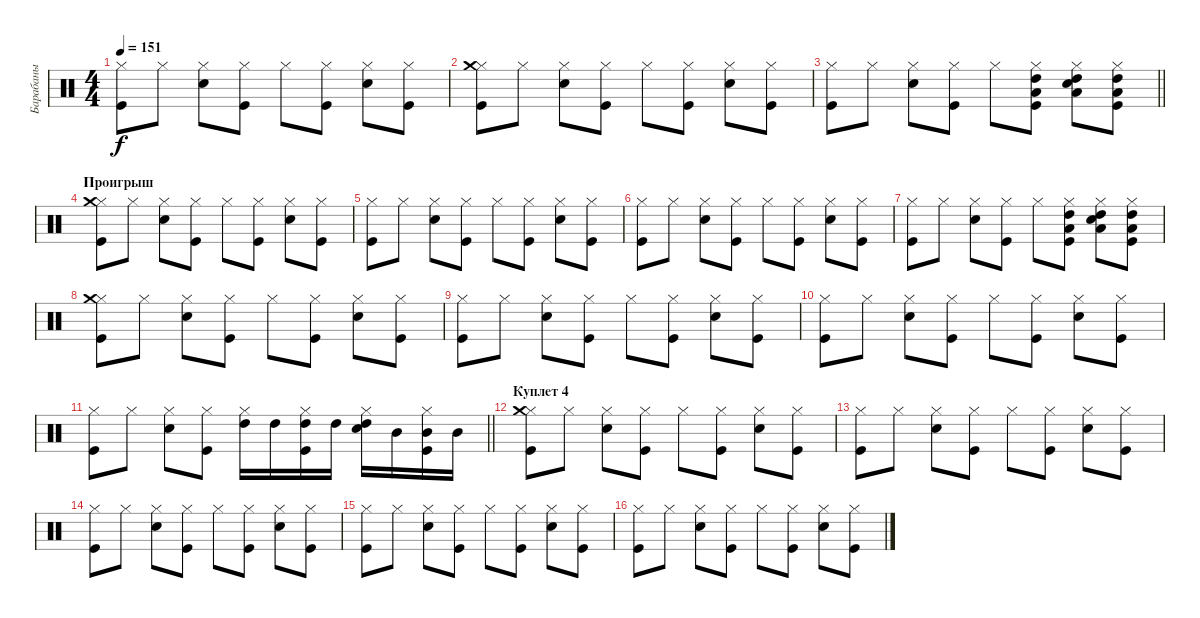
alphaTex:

\track ("Барабаны" "Барабаны") {instrument percussion}
\staff {score}
\articulation defaults
\ts (4 4)
\tempo 151
\clef neutral
\ks c
("Kick (hit)" "Hi-Hat (closed)").8{dy f} "Hi-Hat (closed)".8 ("Snare (hit) 2" "Hi-Hat (closed)").8 ("Kick (hit)" "Hi-Hat (closed)").8 "Hi-Hat (closed)".8 ("Kick (hit)" "Hi-Hat (closed)").8 ("Snare (hit) 2" "Hi-Hat (closed)").8 ("Kick (hit)" "Hi-Hat (closed)").8 |
("Kick (hit)" "Hi-Hat (closed)" "Crash medium (hit)").8 "Hi-Hat (closed)".8 ("Snare (hit) 2" "Hi-Hat (closed)").8 ("Kick (hit)" "Hi-Hat (closed)").8 "Hi-Hat (closed)".8 ("Kick (hit)" "Hi-Hat (closed)").8 ("Snare (hit) 2" "Hi-Hat (closed)").8 ("Kick (hit)" "Hi-Hat (closed)").8 |
\barLineRight lightlight
("Kick (hit)" "Hi-Hat (closed)").8 "Hi-Hat (closed)".8 ("Snare (hit) 2" "Hi-Hat (closed)").8 ("Kick (hit)" "Hi-Hat (closed)").8 "Hi-Hat (closed)".8 ("Kick (hit)" "Hi-Hat (closed)" "Low Floor Tom (hit)" "High Tom (hit)").8 ("Snare (hit) 2" "Hi-Hat (closed)" "Low Floor Tom (hit)" "High Tom (hit)").8 ("Kick (hit)" "Hi-Hat (closed)" "Low Floor Tom (hit)" "High Tom (hit)").8 |
\section ("" "Проигрыш")
("Kick (hit)" "Hi-Hat (closed)" "Crash medium (hit)").8 "Hi-Hat (closed)".8 ("Snare (hit) 2" "Hi-Hat (closed)").8 ("Kick (hit)" "Hi-Hat (closed)").8 "Hi-Hat (closed)".8 ("Kick (hit)" "Hi-Hat (closed)").8 ("Snare (hit) 2" "Hi-Hat (closed)").8 ("Kick (hit)" "Hi-Hat (closed)").8 |
("Kick (hit)" "Hi-Hat (closed)").8 "Hi-Hat (closed)".8 ("Snare (hit) 2" "Hi-Hat (closed)").8 ("Kick (hit)" "Hi-Hat (closed)").8 "Hi-Hat (closed)".8 ("Kick (hit)" "Hi-Hat (closed)").8 ("Snare (hit) 2" "Hi-Hat (closed)").8 ("Kick (hit)" "Hi-Hat (closed)").8 |
("Kick (hit)" "Hi-Hat (closed)").8 "Hi-Hat (closed)".8 ("Snare (hit) 2" "Hi-Hat (closed)").8 ("Kick (hit)" "Hi-Hat (closed)").8 "Hi-Hat (closed)".8 ("Kick (hit)" "Hi-Hat (closed)").8 ("Snare (hit) 2" "Hi-Hat (closed)").8 ("Kick (hit)" "Hi-Hat (closed)").8 |
("Kick (hit)" "Hi-Hat (closed)").8 "Hi-Hat (closed)".8 ("Snare (hit) 2" "Hi-Hat (closed)").8 ("Kick (hit)" "Hi-Hat (closed)").8 "Hi-Hat (closed)".8 ("Kick (hit)" "Hi-Hat (closed)" "Low Floor Tom (hit)" "High Tom (hit)").8 ("Snare (hit) 2" "Hi-Hat (closed)" "Low Floor Tom (hit)" "High Tom (hit)").8 ("Kick (hit)" "Hi-Hat (closed)" "Low Floor Tom (hit)" "High Tom (hit)").8 |
("Kick (hit)" "Hi-Hat (closed)" "Crash medium (hit)").8 "Hi-Hat (closed)".8 ("Snare (hit) 2" "Hi-Hat (closed)").8 ("Kick (hit)" "Hi-Hat (closed)").8 "Hi-Hat (closed)".8 ("Kick (hit)" "Hi-Hat (closed)").8 ("Snare (hit) 2" "Hi-Hat (closed)").8 ("Kick (hit)" "Hi-Hat (closed)").8 |
("Kick (hit)" "Hi-Hat (closed)").8 "Hi-Hat (closed)".8 ("Snare (hit) 2" "Hi-Hat (closed)").8 ("Kick (hit)" "Hi-Hat (closed)").8 "Hi-Hat (closed)".8 ("Kick (hit)" "Hi-Hat (closed)").8 ("Snare (hit) 2" "Hi-Hat (closed)").8 ("Kick (hit)" "Hi-Hat (closed)").8 |
("Kick (hit)" "Hi-Hat (closed)").8 "Hi-Hat (closed)".8 ("Snare (hit) 2" "Hi-Hat (closed)").8 ("Kick (hit)" "Hi-Hat (closed)").8 "Hi-Hat (closed)".8 ("Kick (hit)" "Hi-Hat (closed)").8 ("Snare (hit) 2" "Hi-Hat (closed)").8 ("Kick (hit)" "Hi-Hat (closed)").8 |
\barLineRight lightlight
("Kick (hit)" "Hi-Hat (closed)").8 "Hi-Hat (closed)".8 ("Snare (hit) 2" "Hi-Hat (closed)").8 ("Kick (hit)" "Hi-Hat (closed)").8 ("Hi-Hat (closed)" "High Tom (hit)").16 "High Tom (hit)".16 ("Kick (hit)" "Hi-Hat (closed)" "High Tom (hit)").16 "High Tom (hit)".16 ("Snare (hit) 2" "Hi-Hat (closed)" "High Tom (hit)").16 "Mid Tom (hit)".16 ("Kick (hit)" "Hi-Hat (closed)" "Mid Tom (hit)").16 "Mid Tom (hit)".16 |
\section ("" "Куплет 4")
("Kick (hit)" "Hi-Hat (closed)" "Crash medium (hit)").8 "Hi-Hat (closed)".8 ("Snare (hit) 2" "Hi-Hat (closed)").8 ("Kick (hit)" "Hi-Hat (closed)").8 "Hi-Hat (closed)".8 ("Kick (hit)" "Hi-Hat (closed)").8 ("Snare (hit) 2" "Hi-Hat (closed)").8 ("Kick (hit)" "Hi-Hat (closed)").8 |
("Kick (hit)" "Hi-Hat (closed)").8 "Hi-Hat (closed)".8 ("Snare (hit) 2" "Hi-Hat (closed)").8 ("Kick (hit)" "Hi-Hat (closed)").8 "Hi-Hat (closed)".8 ("Kick (hit)" "Hi-Hat (closed)").8 ("Snare (hit) 2" "Hi-Hat (closed)").8 ("Kick (hit)" "Hi-Hat (closed)").8 |
("Kick (hit)" "Hi-Hat (closed)").8 "Hi-Hat (closed)".8 ("Snare (hit) 2" "Hi-Hat (closed)").8 ("Kick (hit)" "Hi-Hat (closed)").8 "Hi-Hat (closed)".8 ("Kick (hit)" "Hi-Hat (closed)").8 ("Snare (hit) 2" "Hi-Hat (closed)").8 ("Kick (hit)" "Hi-Hat (closed)").8 |
("Kick (hit)" "Hi-Hat (closed)").8 "Hi-Hat (closed)".8 ("Snare (hit) 2" "Hi-Hat (closed)").8 ("Kick (hit)" "Hi-Hat (closed)").8 "Hi-Hat (closed)".8 ("Kick (hit)" "Hi-Hat (closed)").8 ("Snare (hit) 2" "Hi-Hat (closed)").8 ("Kick (hit)" "Hi-Hat (closed)").8 |
("Kick (hit)" "Hi-Hat (closed)").8 "Hi-Hat (closed)".8 ("Snare (hit) 2" "Hi-Hat (closed)").8 ("Kick (hit)" "Hi-Hat (closed)").8 "Hi-Hat (closed)".8 ("Kick (hit)" "Hi-Hat (closed)").8 ("Snare (hit) 2" "Hi-Hat (closed)").8 ("Kick (hit)" "Hi-Hat (closed)").8
